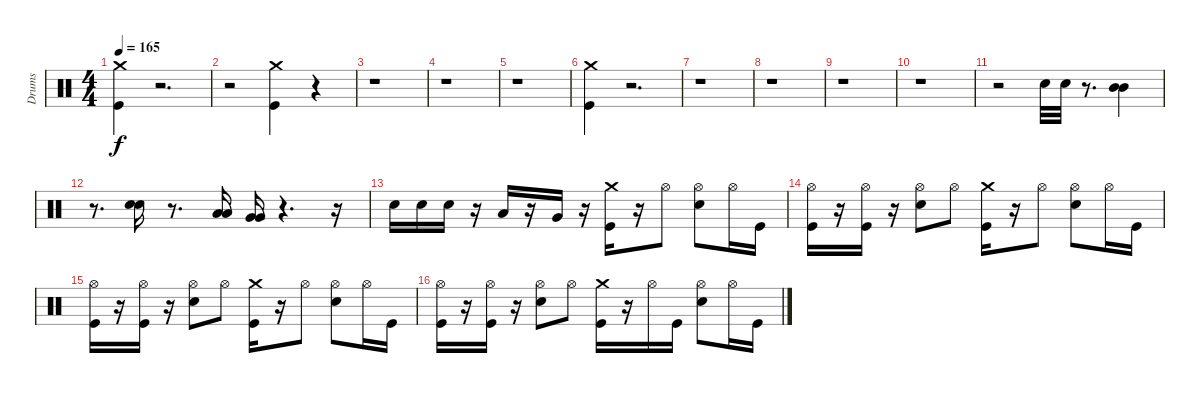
\track ("Drums" "Drums") {instrument percussion}
\staff {score}
\articulation defaults
\ts (4 4)
\tempo 165
\clef neutral
\ks c
("Crash medium (hit)" "Kick (hit)").4{dy f} r.2{d} |
r.2 ("Crash medium (hit)" "Kick (hit)").4 r.4 |
r.1 |
r.1 |
r.1 |
("Crash medium (hit)" "Kick (hit)").4 r.2{d} |
r.1 |
r.1 |
r.1 |
r.1 |
r.2 "Electric Snare (hit)".32 "Electric Snare (hit)".32 r.8{d} ("Mid Tom (hit)" "Mid Tom (hit)").4 |
r.8{d} ("Electric Snare (hit)" "Electric Snare (hit)").16 r.8{d} ("Low Tom (hit)" "Low Tom (hit)").16 ("Very Low Tom (hit)" "Very Low Tom (hit)").16 r.4{d} r.16 |
"Electric Snare (hit)".16 "Electric Snare (hit)".16 "Electric Snare (hit)".16 r.16 "Low Tom (hit)".16 r.16 "Very Low Tom (hit)".16 r.16 ("Crash medium (hit)" "Kick (hit)").16{volume 14 balance 8} r.16 "Hi-Hat (open)".8 ("Hi-Hat (open)" "Electric Snare (hit)").8 "Hi-Hat (open)".16 "Kick (hit)".16 |
("Hi-Hat (open)" "Kick (hit)").16 r.16 ("Kick (hit)" "Hi-Hat (open)").16 r.16 ("Hi-Hat (open)" "Electric Snare (hit)").8 "Hi-Hat (open)".8 ("Crash medium (hit)" "Kick (hit)").16 r.16 "Hi-Hat (open)".8 ("Hi-Hat (open)" "Electric Snare (hit)").8 "Hi-Hat (open)".16 "Kick (hit)".16 |
("Hi-Hat (open)" "Kick (hit)").16 r.16 ("Kick (hit)" "Hi-Hat (open)").16 r.16 ("Hi-Hat (open)" "Electric Snare (hit)").8 "Hi-Hat (open)".8 ("Crash medium (hit)" "Kick (hit)").16 r.16 "Hi-Hat (open)".8 ("Hi-Hat (open)" "Electric Snare (hit)").8 "Hi-Hat (open)".16 "Kick (hit)".16 |
("Hi-Hat (open)" "Kick (hit)").16 r.16 ("Kick (hit)" "Hi-Hat (open)").16 r.16 ("Hi-Hat (open)" "Electric Snare (hit)").8 "Hi-Hat (open)".8 ("Crash medium (hit)" "Kick (hit)").16 r.16 "Hi-Hat (open)".16 "Kick (hit)".16 ("Hi-Hat (open)" "Electric Snare (hit)").8 "Hi-Hat (open)".16 "Kick (hit)".16
